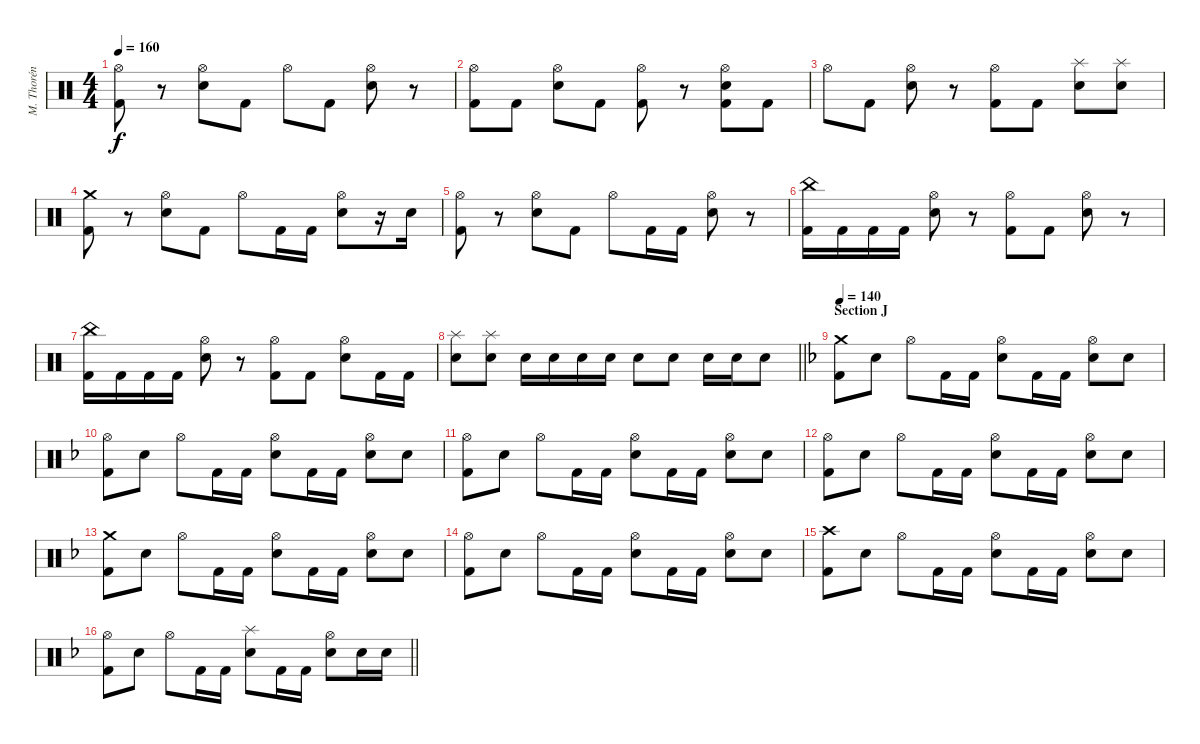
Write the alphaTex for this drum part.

\track ("M. Thorén (Drums)" "M. Thorén ") {instrument percussion}
\staff {score}
\articulation defaults
\ts (4 4)
\tempo 160
\clef neutral
\ks aminor
("Hi-Hat (open)" "Kick (hit) 2").8{dy f} r.8 ("Hi-Hat (open)" "Electric Snare (hit)").8 "Kick (hit) 2".8 "Hi-Hat (open)".8 "Kick (hit) 2".8 ("Hi-Hat (open)" "Electric Snare (hit)").8 r.8 |
("Hi-Hat (open)" "Kick (hit) 2").8 "Kick (hit) 2".8 ("Hi-Hat (open)" "Electric Snare (hit)").8 "Kick (hit) 2".8 ("Hi-Hat (open)" "Kick (hit) 2").8 r.8 ("Hi-Hat (open)" "Electric Snare (hit)" "Kick (hit) 2").8 "Kick (hit) 2".8 |
"Hi-Hat (open)".8 "Kick (hit) 2".8 ("Hi-Hat (open)" "Electric Snare (hit)").8 r.8 ("Hi-Hat (open)" "Kick (hit) 2").8 "Kick (hit) 2".8 ("Splash (hit)" "Electric Snare (hit)").8 ("Splash (hit)" "Electric Snare (hit)").8 |
("Crash medium (hit)" "Kick (hit) 2").8 r.8 ("Hi-Hat (open)" "Electric Snare (hit)").8 "Kick (hit) 2".8 "Hi-Hat (open)".8 "Kick (hit) 2".16 "Kick (hit) 2".16 ("Hi-Hat (open)" "Electric Snare (hit)").8 r.16 "Electric Snare (hit)".16 |
("Hi-Hat (open)" "Kick (hit) 2").8 r.8 ("Hi-Hat (open)" "Electric Snare (hit)").8 "Kick (hit) 2".8 "Hi-Hat (open)".8 "Kick (hit) 2".16 "Kick (hit) 2".16 ("Hi-Hat (open)" "Electric Snare (hit)").8 r.8 |
("China (hit)" "Kick (hit) 2").16 "Kick (hit) 2".16 "Kick (hit) 2".16 "Kick (hit) 2".16 ("Hi-Hat (open)" "Electric Snare (hit)").8 r.8 ("Hi-Hat (open)" "Kick (hit) 2").8 "Kick (hit) 2".8 ("Hi-Hat (open)" "Electric Snare (hit)").8 r.8 |
("China (hit)" "Kick (hit) 2").16 "Kick (hit) 2".16 "Kick (hit) 2".16 "Kick (hit) 2".16 ("Hi-Hat (open)" "Electric Snare (hit)").8 r.8 ("Hi-Hat (open)" "Kick (hit) 2").8 "Kick (hit) 2".8 ("Hi-Hat (open)" "Electric Snare (hit)").8 "Kick (hit) 2".16 "Kick (hit) 2".16 |
\barLineRight lightlight
("Splash (hit)" "Electric Snare (hit)").8 ("Splash (hit)" "Electric Snare (hit)").8 "Electric Snare (hit)".16 "Electric Snare (hit)".16 "Electric Snare (hit)".16 "Electric Snare (hit)".16 "Electric Snare (hit)".8 "Electric Snare (hit)".8 "Electric Snare (hit)".16 "Electric Snare (hit)".16 "Electric Snare (hit)".8 |
\section ("" "Section J")
\tempo 140
\ks dminor
("Crash medium (hit)" "Kick (hit) 2").8 "Electric Snare (hit)".8 "Hi-Hat (open)".8 "Kick (hit) 2".16 "Kick (hit) 2".16 ("Hi-Hat (open)" "Electric Snare (hit)").8 "Kick (hit) 2".16 "Kick (hit) 2".16 ("Hi-Hat (open)" "Electric Snare (hit)").8 "Electric Snare (hit)".8 |
("Hi-Hat (open)" "Kick (hit) 2").8 "Electric Snare (hit)".8 "Hi-Hat (open)".8 "Kick (hit) 2".16 "Kick (hit) 2".16 ("Hi-Hat (open)" "Electric Snare (hit)").8 "Kick (hit) 2".16 "Kick (hit) 2".16 ("Hi-Hat (open)" "Electric Snare (hit)").8 "Electric Snare (hit)".8 |
("Hi-Hat (open)" "Kick (hit) 2").8 "Electric Snare (hit)".8 "Hi-Hat (open)".8 "Kick (hit) 2".16 "Kick (hit) 2".16 ("Hi-Hat (open)" "Electric Snare (hit)").8 "Kick (hit) 2".16 "Kick (hit) 2".16 ("Hi-Hat (open)" "Electric Snare (hit)").8 "Electric Snare (hit)".8 |
("Hi-Hat (open)" "Kick (hit) 2").8 "Electric Snare (hit)".8 "Hi-Hat (open)".8 "Kick (hit) 2".16 "Kick (hit) 2".16 ("Hi-Hat (open)" "Electric Snare (hit)").8 "Kick (hit) 2".16 "Kick (hit) 2".16 ("Hi-Hat (open)" "Electric Snare (hit)").8 "Electric Snare (hit)".8 |
("Crash medium (hit)" "Kick (hit) 2").8 "Electric Snare (hit)".8 "Hi-Hat (open)".8 "Kick (hit) 2".16 "Kick (hit) 2".16 ("Hi-Hat (open)" "Electric Snare (hit)").8 "Kick (hit) 2".16 "Kick (hit) 2".16 ("Hi-Hat (open)" "Electric Snare (hit)").8 "Electric Snare (hit)".8 |
("Hi-Hat (open)" "Kick (hit) 2").8 "Electric Snare (hit)".8 "Hi-Hat (open)".8 "Kick (hit) 2".16 "Kick (hit) 2".16 ("Hi-Hat (open)" "Electric Snare (hit)").8 "Kick (hit) 2".16 "Kick (hit) 2".16 ("Hi-Hat (open)" "Electric Snare (hit)").8 "Electric Snare (hit)".8 |
("Crash high (hit)" "Kick (hit) 2").8 "Electric Snare (hit)".8 "Hi-Hat (open)".8 "Kick (hit) 2".16 "Kick (hit) 2".16 ("Hi-Hat (open)" "Electric Snare (hit)").8 "Kick (hit) 2".16 "Kick (hit) 2".16 ("Hi-Hat (open)" "Electric Snare (hit)").8 "Electric Snare (hit)".8 |
\barLineRight lightlight
("Hi-Hat (open)" "Kick (hit) 2").8 "Electric Snare (hit)".8 "Hi-Hat (open)".8 "Kick (hit) 2".16 "Kick (hit) 2".16 ("Splash (hit)" "Electric Snare (hit)").8 "Kick (hit) 2".16 "Kick (hit) 2".16 ("Hi-Hat (open)" "Electric Snare (hit)").8 "Electric Snare (hit)".16 "Electric Snare (hit)".16
